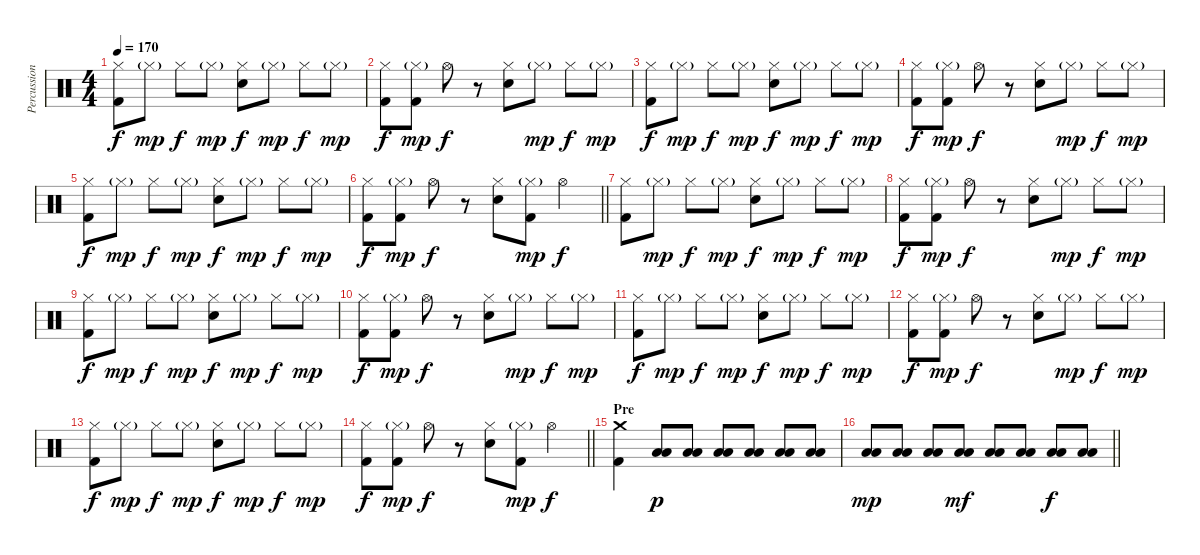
\track ("Percussion" "Percussion") {instrument percussion}
\staff {score}
\articulation defaults
\ts (4 4)
\tempo 170
\clef neutral
\ks c
("Hi-Hat (closed)" "Kick (hit) 2").8{dy f} "Hi-Hat (closed)"{g}.8{dy mp} "Hi-Hat (closed)".8{dy f} "Hi-Hat (closed)"{g}.8{dy mp} ("Hi-Hat (closed)" "Electric Snare (hit)").8{dy f} "Hi-Hat (closed)"{g}.8{dy mp} "Hi-Hat (closed)".8{dy f} "Hi-Hat (closed)"{g}.8{dy mp} |
("Hi-Hat (closed)" "Kick (hit) 2").8{dy f} ("Hi-Hat (closed)"{g} "Kick (hit) 2").8{dy mp} "Hi-Hat (open)".8{dy f} r.8 ("Hi-Hat (closed)" "Electric Snare (hit)").8 "Hi-Hat (closed)"{g}.8{dy mp} "Hi-Hat (closed)".8{dy f} "Hi-Hat (closed)"{g}.8{dy mp} |
("Hi-Hat (closed)" "Kick (hit) 2").8{dy f} "Hi-Hat (closed)"{g}.8{dy mp} "Hi-Hat (closed)".8{dy f} "Hi-Hat (closed)"{g}.8{dy mp} ("Hi-Hat (closed)" "Electric Snare (hit)").8{dy f} "Hi-Hat (closed)"{g}.8{dy mp} "Hi-Hat (closed)".8{dy f} "Hi-Hat (closed)"{g}.8{dy mp} |
("Hi-Hat (closed)" "Kick (hit) 2").8{dy f} ("Hi-Hat (closed)"{g} "Kick (hit) 2").8{dy mp} "Hi-Hat (open)".8{dy f} r.8 ("Hi-Hat (closed)" "Electric Snare (hit)").8 "Hi-Hat (closed)"{g}.8{dy mp} "Hi-Hat (closed)".8{dy f} "Hi-Hat (closed)"{g}.8{dy mp} |
("Hi-Hat (closed)" "Kick (hit) 2").8{dy f} "Hi-Hat (closed)"{g}.8{dy mp} "Hi-Hat (closed)".8{dy f} "Hi-Hat (closed)"{g}.8{dy mp} ("Hi-Hat (closed)" "Electric Snare (hit)").8{dy f} "Hi-Hat (closed)"{g}.8{dy mp} "Hi-Hat (closed)".8{dy f} "Hi-Hat (closed)"{g}.8{dy mp} |
\barLineRight lightlight
("Hi-Hat (closed)" "Kick (hit) 2").8{dy f} ("Hi-Hat (closed)"{g} "Kick (hit) 2").8{dy mp} "Hi-Hat (open)".8{dy f} r.8 ("Hi-Hat (closed)" "Electric Snare (hit)").8 ("Hi-Hat (closed)"{g} "Kick (hit) 2").8{dy mp} "Hi-Hat (open)".4{dy f} |
("Hi-Hat (closed)" "Kick (hit) 2").8 "Hi-Hat (closed)"{g}.8{dy mp} "Hi-Hat (closed)".8{dy f} "Hi-Hat (closed)"{g}.8{dy mp} ("Hi-Hat (closed)" "Electric Snare (hit)").8{dy f} "Hi-Hat (closed)"{g}.8{dy mp} "Hi-Hat (closed)".8{dy f} "Hi-Hat (closed)"{g}.8{dy mp} |
("Hi-Hat (closed)" "Kick (hit) 2").8{dy f} ("Hi-Hat (closed)"{g} "Kick (hit) 2").8{dy mp} "Hi-Hat (open)".8{dy f} r.8 ("Hi-Hat (closed)" "Electric Snare (hit)").8 "Hi-Hat (closed)"{g}.8{dy mp} "Hi-Hat (closed)".8{dy f} "Hi-Hat (closed)"{g}.8{dy mp} |
("Hi-Hat (closed)" "Kick (hit) 2").8{dy f} "Hi-Hat (closed)"{g}.8{dy mp} "Hi-Hat (closed)".8{dy f} "Hi-Hat (closed)"{g}.8{dy mp} ("Hi-Hat (closed)" "Electric Snare (hit)").8{dy f} "Hi-Hat (closed)"{g}.8{dy mp} "Hi-Hat (closed)".8{dy f} "Hi-Hat (closed)"{g}.8{dy mp} |
("Hi-Hat (closed)" "Kick (hit) 2").8{dy f} ("Hi-Hat (closed)"{g} "Kick (hit) 2").8{dy mp} "Hi-Hat (open)".8{dy f} r.8 ("Hi-Hat (closed)" "Electric Snare (hit)").8 "Hi-Hat (closed)"{g}.8{dy mp} "Hi-Hat (closed)".8{dy f} "Hi-Hat (closed)"{g}.8{dy mp} |
("Hi-Hat (closed)" "Kick (hit) 2").8{dy f} "Hi-Hat (closed)"{g}.8{dy mp} "Hi-Hat (closed)".8{dy f} "Hi-Hat (closed)"{g}.8{dy mp} ("Hi-Hat (closed)" "Electric Snare (hit)").8{dy f} "Hi-Hat (closed)"{g}.8{dy mp} "Hi-Hat (closed)".8{dy f} "Hi-Hat (closed)"{g}.8{dy mp} |
("Hi-Hat (closed)" "Kick (hit) 2").8{dy f} ("Hi-Hat (closed)"{g} "Kick (hit) 2").8{dy mp} "Hi-Hat (open)".8{dy f} r.8 ("Hi-Hat (closed)" "Electric Snare (hit)").8 "Hi-Hat (closed)"{g}.8{dy mp} "Hi-Hat (closed)".8{dy f} "Hi-Hat (closed)"{g}.8{dy mp} |
("Hi-Hat (closed)" "Kick (hit) 2").8{dy f} "Hi-Hat (closed)"{g}.8{dy mp} "Hi-Hat (closed)".8{dy f} "Hi-Hat (closed)"{g}.8{dy mp} ("Hi-Hat (closed)" "Electric Snare (hit)").8{dy f} "Hi-Hat (closed)"{g}.8{dy mp} "Hi-Hat (closed)".8{dy f} "Hi-Hat (closed)"{g}.8{dy mp} |
\barLineRight lightlight
("Hi-Hat (closed)" "Kick (hit) 2").8{dy f} ("Hi-Hat (closed)"{g} "Kick (hit) 2").8{dy mp} "Hi-Hat (open)".8{dy f} r.8 ("Hi-Hat (closed)" "Electric Snare (hit)").8 ("Hi-Hat (closed)"{g} "Kick (hit) 2").8{dy mp} "Hi-Hat (open)".4{dy f} |
\section ("" "Pre")
("Crash medium (hit)" "Kick (hit) 2").4 ("Low Tom (hit)" "Low Floor Tom (hit)").8{dy p} ("Low Tom (hit)" "Low Floor Tom (hit)").8 ("Low Tom (hit)" "Low Floor Tom (hit)").8 ("Low Tom (hit)" "Low Floor Tom (hit)").8 ("Low Tom (hit)" "Low Floor Tom (hit)").8 ("Low Tom (hit)" "Low Floor Tom (hit)").8 |
\barLineRight lightlight
("Low Tom (hit)" "Low Floor Tom (hit)").8{dy mp} ("Low Tom (hit)" "Low Floor Tom (hit)").8 ("Low Tom (hit)" "Low Floor Tom (hit)").8 ("Low Tom (hit)" "Low Floor Tom (hit)").8{dy mf} ("Low Tom (hit)" "Low Floor Tom (hit)").8 ("Low Tom (hit)" "Low Floor Tom (hit)").8 ("Low Tom (hit)" "Low Floor Tom (hit)").8{dy f} ("Low Tom (hit)" "Low Floor Tom (hit)").8
